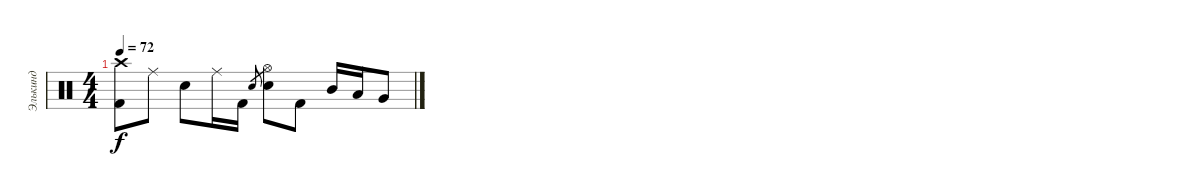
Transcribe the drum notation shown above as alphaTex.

\track ("Элькинд" "Элькинд") {instrument percussion}
\staff {score}
\articulation defaults
\ts (4 4)
\tempo 72
\clef neutral
\ks c
("Crash high (hit)" "Kick (hit) 2").8{dy f} "Ride (middle)".8 "Snare (hit) 2".8 "Ride (middle)".16 "Kick (hit) 2".16 "Snare (hit) 2".8{gr} ("Hi-Hat (open)" "Snare (hit) 2").8 "Kick (hit) 2".8 "Mid Tom (hit)".16 "Low Tom (hit)".16 "Very Low Tom (hit)".8
